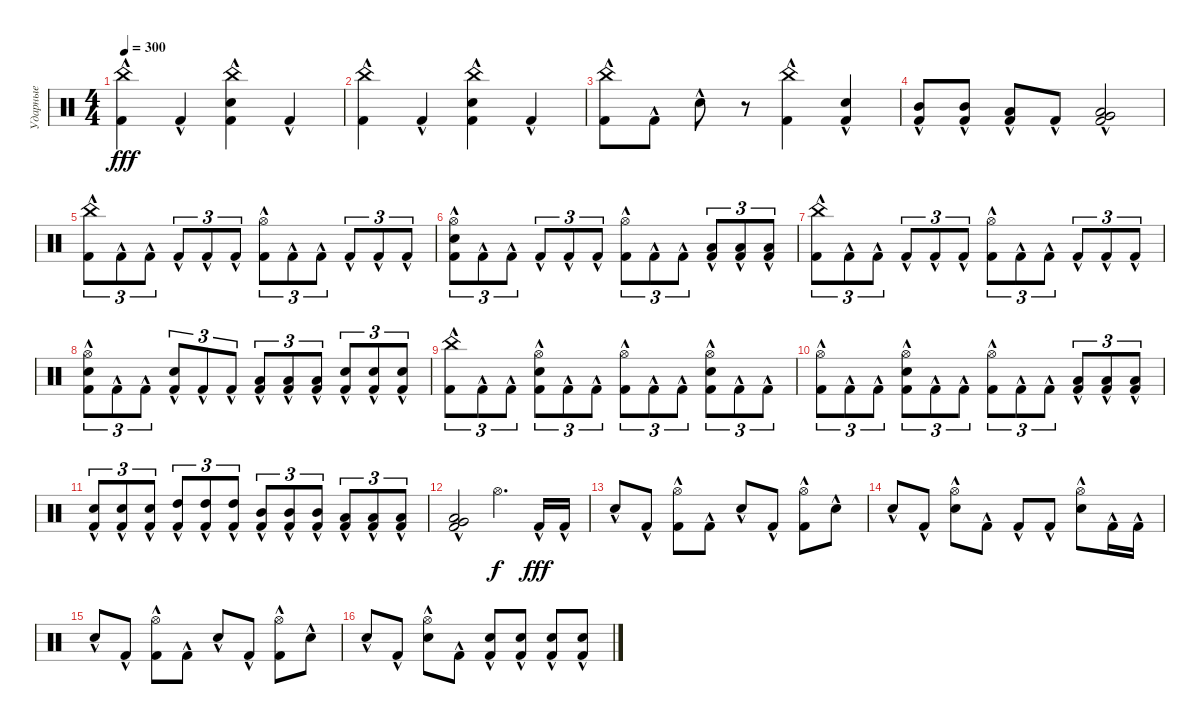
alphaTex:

\track ("Ударные" "Ударные") {instrument percussion}
\staff
\articulation defaults
\ts (4 4)
\tempo 300
\clef neutral
\ks c
("China (hit)" "Kick (hit) 2"{hac}).4{dy fff} "Kick (hit) 2"{hac}.4 ("China (hit)" "Snare (hit) 2"{hac} "Kick (hit) 2"{hac}).4 "Kick (hit) 2"{hac}.4 |
("China (hit)" "Kick (hit) 2"{hac}).4 "Kick (hit) 2"{hac}.4 ("China (hit)" "Snare (hit) 2"{hac} "Kick (hit) 2"{hac}).4 "Kick (hit) 2"{hac}.4 |
("China (hit)" "Kick (hit) 2"{hac}).8 "Kick (hit) 2"{hac}.8 "Snare (hit) 2"{hac}.8 r.8 ("China (hit)" "Kick (hit) 2"{hac}).4 ("Snare (hit) 2"{hac} "Kick (hit) 2"{hac}).4 |
("Mid Tom (hit)"{hac} "Kick (hit) 2"{hac}).8 ("Mid Tom (hit)"{hac} "Kick (hit) 2"{hac}).8 ("Low Tom (hit)"{hac} "Kick (hit) 2"{hac}).8 "Kick (hit) 2"{hac}.8 ("Very Low Tom (hit)"{hac} "Low Floor Tom (hit)"{hac} "Kick (hit) 2"{hac}).2 |
("China (hit)" "Kick (hit) 2"{hac}).8{tu (3 2)} "Kick (hit) 2"{hac}.8{tu (3 2)} "Kick (hit) 2"{hac}.8{tu (3 2)} "Kick (hit) 2"{hac}.8{tu (3 2)} "Kick (hit) 2"{hac}.8{tu (3 2)} "Kick (hit) 2"{hac}.8{tu (3 2)} ("Hi-Hat (open)" "Kick (hit) 2"{hac}).8{tu (3 2)} "Kick (hit) 2"{hac}.8{tu (3 2)} "Kick (hit) 2"{hac}.8{tu (3 2)} "Kick (hit) 2"{hac}.8{tu (3 2)} "Kick (hit) 2"{hac}.8{tu (3 2)} "Kick (hit) 2"{hac}.8{tu (3 2)} |
("Hi-Hat (open)" "Snare (hit) 2"{hac} "Kick (hit) 2"{hac}).8{tu (3 2)} "Kick (hit) 2"{hac}.8{tu (3 2)} "Kick (hit) 2"{hac}.8{tu (3 2)} "Kick (hit) 2"{hac}.8{tu (3 2)} "Kick (hit) 2"{hac}.8{tu (3 2)} "Kick (hit) 2"{hac}.8{tu (3 2)} ("Hi-Hat (open)" "Kick (hit) 2"{hac}).8{tu (3 2)} "Kick (hit) 2"{hac}.8{tu (3 2)} "Kick (hit) 2"{hac}.8{tu (3 2)} ("Low Tom (hit)"{hac} "Kick (hit) 2"{hac}).8{tu (3 2)} ("Low Tom (hit)"{hac} "Kick (hit) 2"{hac}).8{tu (3 2)} ("Low Tom (hit)"{hac} "Kick (hit) 2"{hac}).8{tu (3 2)} |
("China (hit)" "Kick (hit) 2"{hac}).8{tu (3 2)} "Kick (hit) 2"{hac}.8{tu (3 2)} "Kick (hit) 2"{hac}.8{tu (3 2)} "Kick (hit) 2"{hac}.8{tu (3 2)} "Kick (hit) 2"{hac}.8{tu (3 2)} "Kick (hit) 2"{hac}.8{tu (3 2)} ("Hi-Hat (open)" "Kick (hit) 2"{hac}).8{tu (3 2)} "Kick (hit) 2"{hac}.8{tu (3 2)} "Kick (hit) 2"{hac}.8{tu (3 2)} "Kick (hit) 2"{hac}.8{tu (3 2)} "Kick (hit) 2"{hac}.8{tu (3 2)} "Kick (hit) 2"{hac}.8{tu (3 2)} |
("Hi-Hat (open)" "Snare (hit) 2"{hac} "Kick (hit) 2"{hac}).8{tu (3 2)} "Kick (hit) 2"{hac}.8{tu (3 2)} "Kick (hit) 2"{hac}.8{tu (3 2)} ("Snare (hit) 2"{hac} "Kick (hit) 2"{hac}).8{tu (3 2)} "Kick (hit) 2"{hac}.8{tu (3 2)} "Kick (hit) 2"{hac}.8{tu (3 2)} ("Low Tom (hit)"{hac} "Kick (hit) 2"{hac}).8{tu (3 2)} ("Low Tom (hit)"{hac} "Kick (hit) 2"{hac}).8{tu (3 2)} ("Low Tom (hit)"{hac} "Kick (hit) 2"{hac}).8{tu (3 2)} ("Snare (hit) 2"{hac} "Kick (hit) 2"{hac}).8{tu (3 2)} ("Snare (hit) 2"{hac} "Kick (hit) 2"{hac}).8{tu (3 2)} ("Snare (hit) 2"{hac} "Kick (hit) 2"{hac}).8{tu (3 2)} |
("China (hit)" "Kick (hit) 2"{hac}).8{tu (3 2)} "Kick (hit) 2"{hac}.8{tu (3 2)} "Kick (hit) 2"{hac}.8{tu (3 2)} ("Hi-Hat (open)" "Snare (hit) 2"{hac} "Kick (hit) 2"{hac}).8{tu (3 2)} "Kick (hit) 2"{hac}.8{tu (3 2)} "Kick (hit) 2"{hac}.8{tu (3 2)} ("Hi-Hat (open)" "Kick (hit) 2"{hac}).8{tu (3 2)} "Kick (hit) 2"{hac}.8{tu (3 2)} "Kick (hit) 2"{hac}.8{tu (3 2)} ("Hi-Hat (open)" "Snare (hit) 2"{hac} "Kick (hit) 2"{hac}).8{tu (3 2)} "Kick (hit) 2"{hac}.8{tu (3 2)} "Kick (hit) 2"{hac}.8{tu (3 2)} |
("Hi-Hat (open)" "Kick (hit) 2"{hac}).8{tu (3 2)} "Kick (hit) 2"{hac}.8{tu (3 2)} "Kick (hit) 2"{hac}.8{tu (3 2)} ("Hi-Hat (open)" "Snare (hit) 2"{hac} "Kick (hit) 2"{hac}).8{tu (3 2)} "Kick (hit) 2"{hac}.8{tu (3 2)} "Kick (hit) 2"{hac}.8{tu (3 2)} ("Hi-Hat (open)" "Kick (hit) 2"{hac}).8{tu (3 2)} "Kick (hit) 2"{hac}.8{tu (3 2)} "Kick (hit) 2"{hac}.8{tu (3 2)} ("Low Tom (hit)"{hac} "Kick (hit) 2"{hac}).8{tu (3 2)} ("Low Tom (hit)"{hac} "Kick (hit) 2"{hac}).8{tu (3 2)} ("Low Tom (hit)"{hac} "Kick (hit) 2"{hac}).8{tu (3 2)} |
("Snare (hit) 2"{hac} "Kick (hit) 2"{hac}).8{tu (3 2)} ("Snare (hit) 2"{hac} "Kick (hit) 2"{hac}).8{tu (3 2)} ("Snare (hit) 2"{hac} "Kick (hit) 2"{hac}).8{tu (3 2)} ("High Tom (hit)"{hac} "Kick (hit) 2"{hac}).8{tu (3 2)} ("High Tom (hit)"{hac} "Kick (hit) 2"{hac}).8{tu (3 2)} ("High Tom (hit)"{hac} "Kick (hit) 2"{hac}).8{tu (3 2)} ("Mid Tom (hit)"{hac} "Kick (hit) 2"{hac}).8{tu (3 2)} ("Mid Tom (hit)"{hac} "Kick (hit) 2"{hac}).8{tu (3 2)} ("Mid Tom (hit)"{hac} "Kick (hit) 2"{hac}).8{tu (3 2)} ("Low Tom (hit)"{hac} "Kick (hit) 2"{hac}).8{tu (3 2)} ("Low Tom (hit)"{hac} "Kick (hit) 2"{hac}).8{tu (3 2)} ("Low Tom (hit)"{hac} "Kick (hit) 2"{hac}).8{tu (3 2)} |
("Low Floor Tom (hit)" "Very Low Tom (hit)"{hac} "Kick (hit) 2"{hac}).2 "Hi-Hat (open)".4{d dy f} "Kick (hit) 2"{hac}.16{dy fff} "Kick (hit) 2"{hac}.16 |
"Snare (hit) 2"{hac}.8 "Kick (hit) 2"{hac}.8 ("Hi-Hat (open)" "Kick (hit) 2"{hac}).8 "Kick (hit) 2"{hac}.8 "Snare (hit) 2"{hac}.8 "Kick (hit) 2"{hac}.8 ("Hi-Hat (open)" "Kick (hit) 2"{hac}).8 "Snare (hit) 2"{hac}.8 |
"Snare (hit) 2"{hac}.8 "Kick (hit) 2"{hac}.8 ("Hi-Hat (open)" "Snare (hit) 2"{hac}).8 "Kick (hit) 2"{hac}.8 "Kick (hit) 2"{hac}.8 "Kick (hit) 2"{hac}.8 ("Hi-Hat (open)" "Snare (hit) 2"{hac}).8 "Kick (hit) 2"{hac}.16 "Kick (hit) 2"{hac}.16 |
"Snare (hit) 2"{hac}.8 "Kick (hit) 2"{hac}.8 ("Hi-Hat (open)" "Kick (hit) 2"{hac}).8 "Kick (hit) 2"{hac}.8 "Snare (hit) 2"{hac}.8 "Kick (hit) 2"{hac}.8 ("Hi-Hat (open)" "Kick (hit) 2"{hac}).8 "Snare (hit) 2"{hac}.8 |
"Snare (hit) 2"{hac}.8 "Kick (hit) 2"{hac}.8 ("Hi-Hat (open)" "Snare (hit) 2"{hac}).8 "Kick (hit) 2"{hac}.8 ("Snare (hit) 2"{hac} "Kick (hit) 2"{hac}).8 ("Snare (hit) 2"{hac} "Kick (hit) 2"{hac}).8 ("Snare (hit) 2"{hac} "Kick (hit) 2"{hac}).8 ("Snare (hit) 2"{hac} "Kick (hit) 2"{hac}).8
